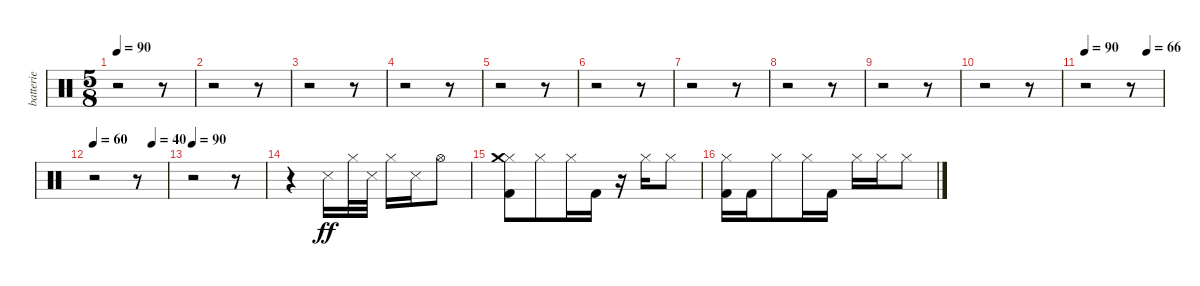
\track ("batterie" "batterie") {instrument percussion}
\staff {score}
\articulation defaults
\ts (5 8)
\tempo 90
\clef neutral
\ks c
r.2{dy ff} r.8 |
r.2 r.8 |
r.2 r.8 |
r.2 r.8 |
r.2 r.8 |
r.2 r.8 |
r.2 r.8 |
r.2 r.8 |
r.2 r.8 |
r.2 r.8 |
\tempo 90
\tempo (66 0.8)
r.2 r.8 |
\tempo 60
\tempo (40 0.8)
r.2 r.8 |
\tempo 90
r.2 r.8 |
r.4 "Snare (side stick) 3".16 "Hi-Hat (closed)".32 "Snare (side stick) 3".32 "Hi-Hat (closed)".16 "Snare (side stick) 3".16 "Hi-Hat (open)".8 |
("Kick (hit) 2" "Hi-Hat (closed)" "Crash medium (hit)").8 "Hi-Hat (closed)".8 "Hi-Hat (closed)".16 "Kick (hit) 2".16 r.16 "Hi-Hat (closed)".16 "Hi-Hat (closed)".8 |
("Kick (hit) 2" "Hi-Hat (closed)").16 "Kick (hit) 2".16 "Hi-Hat (closed)".8 "Hi-Hat (closed)".16 "Kick (hit) 2".16 "Hi-Hat (closed)".16 "Hi-Hat (closed)".16 "Hi-Hat (closed)".8
